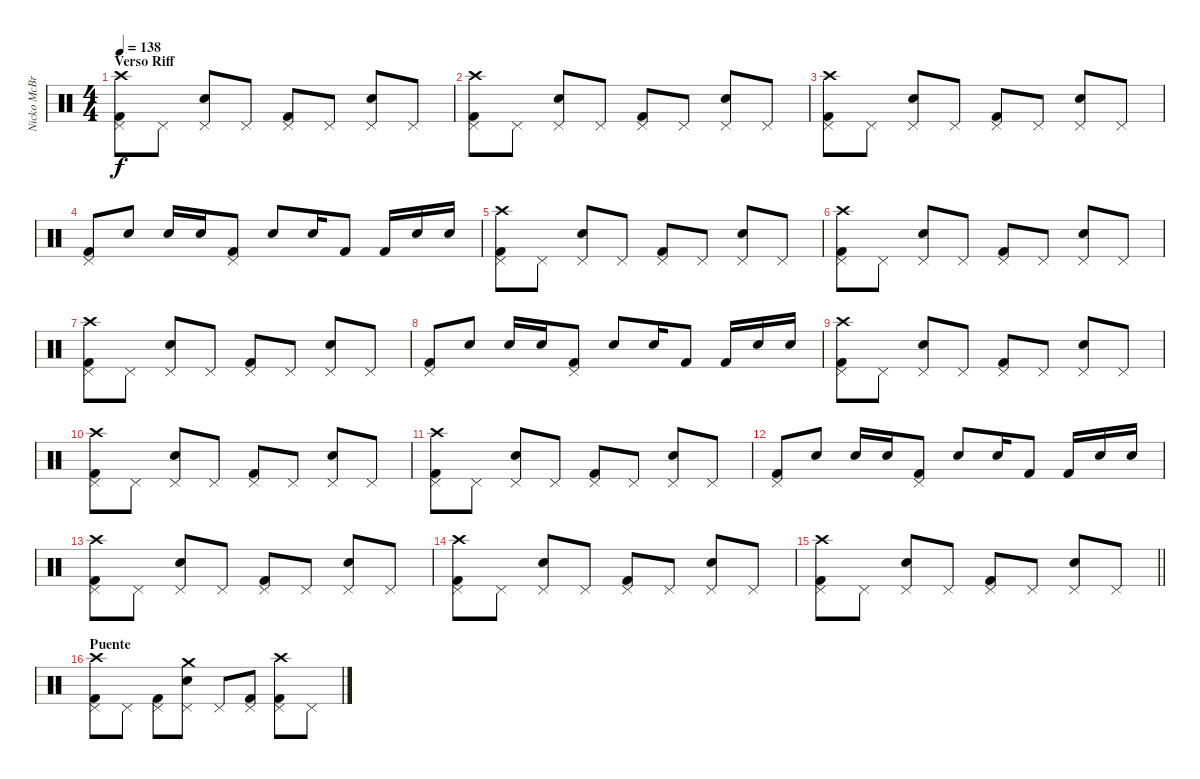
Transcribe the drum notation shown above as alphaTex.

\track ("Nicko McBrain" "Nicko McBr") {instrument percussion}
\staff {score}
\articulation defaults
\ts (4 4)
\section ("" "Verso Riff")
\tempo 138
\clef neutral
\ks c
("Kick (hit) 2" "Pedal Hi-Hat (hit)" "Crash high (hit)").8{dy f} "Pedal Hi-Hat (hit)".8 ("Snare (hit) 2" "Pedal Hi-Hat (hit)").8 "Pedal Hi-Hat (hit)".8 ("Kick (hit) 2" "Pedal Hi-Hat (hit)").8 "Pedal Hi-Hat (hit)".8 ("Snare (hit) 2" "Pedal Hi-Hat (hit)").8 "Pedal Hi-Hat (hit)".8 |
("Kick (hit) 2" "Pedal Hi-Hat (hit)" "Crash high (hit)").8 "Pedal Hi-Hat (hit)".8 ("Snare (hit) 2" "Pedal Hi-Hat (hit)").8 "Pedal Hi-Hat (hit)".8 ("Kick (hit) 2" "Pedal Hi-Hat (hit)").8 "Pedal Hi-Hat (hit)".8 ("Snare (hit) 2" "Pedal Hi-Hat (hit)").8 "Pedal Hi-Hat (hit)".8 |
("Kick (hit) 2" "Pedal Hi-Hat (hit)" "Crash high (hit)").8 "Pedal Hi-Hat (hit)".8 ("Snare (hit) 2" "Pedal Hi-Hat (hit)").8 "Pedal Hi-Hat (hit)".8 ("Kick (hit) 2" "Pedal Hi-Hat (hit)").8 "Pedal Hi-Hat (hit)".8 ("Snare (hit) 2" "Pedal Hi-Hat (hit)").8 "Pedal Hi-Hat (hit)".8 |
("Kick (hit) 2" "Pedal Hi-Hat (hit)").8 "Snare (hit) 2".8 "Snare (hit) 2".16 "Snare (hit) 2".16 ("Kick (hit) 2" "Pedal Hi-Hat (hit)").8 "Snare (hit) 2".8 "Snare (hit) 2".16 "Kick (hit) 2".8 "Kick (hit) 2".16 "Snare (hit) 2".16 "Snare (hit) 2".16 |
("Kick (hit) 2" "Pedal Hi-Hat (hit)" "Crash high (hit)").8 "Pedal Hi-Hat (hit)".8 ("Snare (hit) 2" "Pedal Hi-Hat (hit)").8 "Pedal Hi-Hat (hit)".8 ("Kick (hit) 2" "Pedal Hi-Hat (hit)").8 "Pedal Hi-Hat (hit)".8 ("Snare (hit) 2" "Pedal Hi-Hat (hit)").8 "Pedal Hi-Hat (hit)".8 |
("Kick (hit) 2" "Pedal Hi-Hat (hit)" "Crash high (hit)").8 "Pedal Hi-Hat (hit)".8 ("Snare (hit) 2" "Pedal Hi-Hat (hit)").8 "Pedal Hi-Hat (hit)".8 ("Kick (hit) 2" "Pedal Hi-Hat (hit)").8 "Pedal Hi-Hat (hit)".8 ("Snare (hit) 2" "Pedal Hi-Hat (hit)").8 "Pedal Hi-Hat (hit)".8 |
("Kick (hit) 2" "Pedal Hi-Hat (hit)" "Crash high (hit)").8 "Pedal Hi-Hat (hit)".8 ("Snare (hit) 2" "Pedal Hi-Hat (hit)").8 "Pedal Hi-Hat (hit)".8 ("Kick (hit) 2" "Pedal Hi-Hat (hit)").8 "Pedal Hi-Hat (hit)".8 ("Snare (hit) 2" "Pedal Hi-Hat (hit)").8 "Pedal Hi-Hat (hit)".8 |
("Kick (hit) 2" "Pedal Hi-Hat (hit)").8 "Snare (hit) 2".8 "Snare (hit) 2".16 "Snare (hit) 2".16 ("Kick (hit) 2" "Pedal Hi-Hat (hit)").8 "Snare (hit) 2".8 "Snare (hit) 2".16 "Kick (hit) 2".8 "Kick (hit) 2".16 "Snare (hit) 2".16 "Snare (hit) 2".16 |
("Kick (hit) 2" "Pedal Hi-Hat (hit)" "Crash high (hit)").8 "Pedal Hi-Hat (hit)".8 ("Snare (hit) 2" "Pedal Hi-Hat (hit)").8 "Pedal Hi-Hat (hit)".8 ("Kick (hit) 2" "Pedal Hi-Hat (hit)").8 "Pedal Hi-Hat (hit)".8 ("Snare (hit) 2" "Pedal Hi-Hat (hit)").8 "Pedal Hi-Hat (hit)".8 |
("Kick (hit) 2" "Pedal Hi-Hat (hit)" "Crash high (hit)").8 "Pedal Hi-Hat (hit)".8 ("Snare (hit) 2" "Pedal Hi-Hat (hit)").8 "Pedal Hi-Hat (hit)".8 ("Kick (hit) 2" "Pedal Hi-Hat (hit)").8 "Pedal Hi-Hat (hit)".8 ("Snare (hit) 2" "Pedal Hi-Hat (hit)").8 "Pedal Hi-Hat (hit)".8 |
("Kick (hit) 2" "Pedal Hi-Hat (hit)" "Crash high (hit)").8 "Pedal Hi-Hat (hit)".8 ("Snare (hit) 2" "Pedal Hi-Hat (hit)").8 "Pedal Hi-Hat (hit)".8 ("Kick (hit) 2" "Pedal Hi-Hat (hit)").8 "Pedal Hi-Hat (hit)".8 ("Snare (hit) 2" "Pedal Hi-Hat (hit)").8 "Pedal Hi-Hat (hit)".8 |
("Kick (hit) 2" "Pedal Hi-Hat (hit)").8 "Snare (hit) 2".8 "Snare (hit) 2".16 "Snare (hit) 2".16 ("Kick (hit) 2" "Pedal Hi-Hat (hit)").8 "Snare (hit) 2".8 "Snare (hit) 2".16 "Kick (hit) 2".8 "Kick (hit) 2".16 "Snare (hit) 2".16 "Snare (hit) 2".16 |
("Kick (hit) 2" "Pedal Hi-Hat (hit)" "Crash high (hit)").8 "Pedal Hi-Hat (hit)".8 ("Snare (hit) 2" "Pedal Hi-Hat (hit)").8 "Pedal Hi-Hat (hit)".8 ("Kick (hit) 2" "Pedal Hi-Hat (hit)").8 "Pedal Hi-Hat (hit)".8 ("Snare (hit) 2" "Pedal Hi-Hat (hit)").8 "Pedal Hi-Hat (hit)".8 |
("Kick (hit) 2" "Pedal Hi-Hat (hit)" "Crash high (hit)").8 "Pedal Hi-Hat (hit)".8 ("Snare (hit) 2" "Pedal Hi-Hat (hit)").8 "Pedal Hi-Hat (hit)".8 ("Kick (hit) 2" "Pedal Hi-Hat (hit)").8 "Pedal Hi-Hat (hit)".8 ("Snare (hit) 2" "Pedal Hi-Hat (hit)").8 "Pedal Hi-Hat (hit)".8 |
\barLineRight lightlight
("Kick (hit) 2" "Pedal Hi-Hat (hit)" "Crash high (hit)").8 "Pedal Hi-Hat (hit)".8 ("Snare (hit) 2" "Pedal Hi-Hat (hit)").8 "Pedal Hi-Hat (hit)".8 ("Kick (hit) 2" "Pedal Hi-Hat (hit)").8 "Pedal Hi-Hat (hit)".8 ("Snare (hit) 2" "Pedal Hi-Hat (hit)").8 "Pedal Hi-Hat (hit)".8 |
\section ("" "Puente")
("Kick (hit) 2" "Pedal Hi-Hat (hit)" "Crash high (hit)").8 "Pedal Hi-Hat (hit)".8 ("Kick (hit) 2" "Pedal Hi-Hat (hit)").8 ("Snare (hit) 2" "Pedal Hi-Hat (hit)" "Crash medium (hit)").8 "Pedal Hi-Hat (hit)".8 ("Kick (hit) 2" "Pedal Hi-Hat (hit)").8 ("Kick (hit) 2" "Pedal Hi-Hat (hit)" "Crash high (hit)").8 "Pedal Hi-Hat (hit)".8
